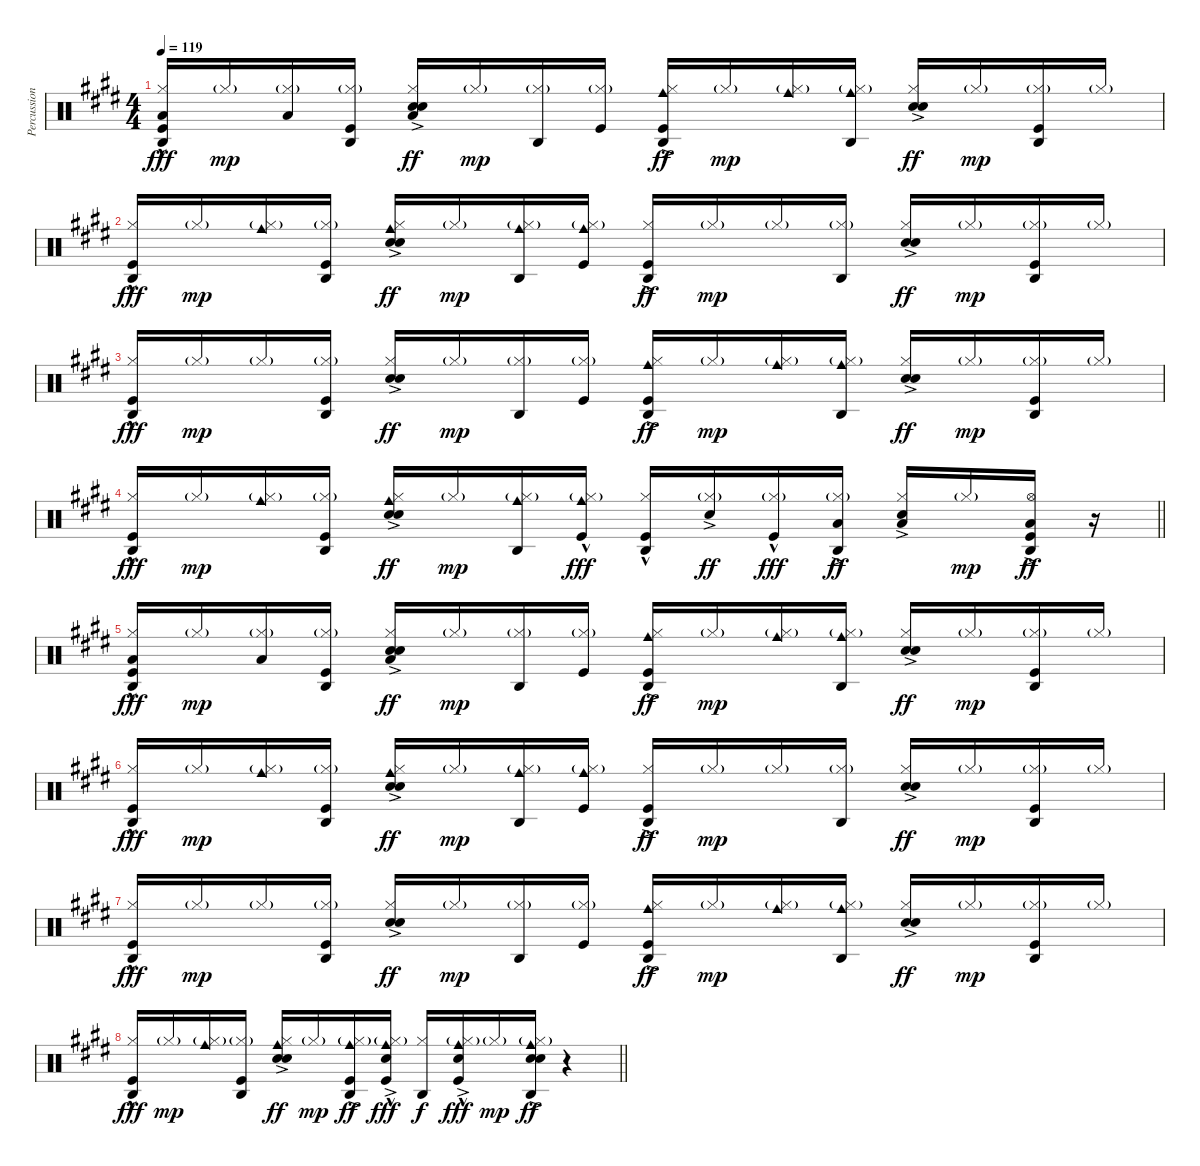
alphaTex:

\track ("Percussion" "Percussion") {instrument percussion}
\staff {score}
\articulation defaults
\ts (4 4)
\tempo 119
\clef neutral
\ks e
("Agogo high (hit)" "Hi-Hat (closed)" "Low Tom (hit)" "Kick (hit)"{hac}).16{dy fff} "Hi-Hat (closed)"{g}.16{dy mp} ("Hi-Hat (closed)"{g} "Low Tom (hit)").16 ("Agogo high (hit)" "Hi-Hat (closed)"{g} "Kick (hit)").16 ("Hi-Hat (closed)" "Hand Clap (hit)"{ac} "Snare (hit) 2"{ac} "Low Tom (hit)").16{dy ff} "Hi-Hat (closed)"{g}.16{dy mp} ("Agogo high (hit)" "Hi-Hat (closed)"{g}).16 ("Hi-Hat (closed)"{g} "Kick (hit)").16 ("Agogo high (hit)" "Cowbell medium (hit)" "Hi-Hat (closed)" "Kick (hit)"{ac}).16{dy ff} "Hi-Hat (closed)"{g}.16{dy mp} ("Cowbell medium (hit)" "Hi-Hat (closed)"{g}).16 ("Agogo high (hit)" "Cowbell medium (hit)" "Hi-Hat (closed)"{g}).16 ("Hi-Hat (closed)" "Hand Clap (hit)"{ac} "Snare (hit) 2"{ac}).16{dy ff} "Hi-Hat (closed)"{g}.16{dy mp} ("Agogo high (hit)" "Hi-Hat (closed)"{g} "Kick (hit)").16 "Hi-Hat (closed)"{g}.16 |
("Agogo high (hit)" "Hi-Hat (closed)" "Kick (hit)"{hac}).16{dy fff} "Hi-Hat (closed)"{g}.16{dy mp} ("Cowbell medium (hit)" "Hi-Hat (closed)"{g}).16 ("Agogo high (hit)" "Hi-Hat (closed)"{g} "Kick (hit)").16 ("Cowbell medium (hit)" "Hi-Hat (closed)" "Hand Clap (hit)"{ac} "Snare (hit) 2"{ac}).16{dy ff} "Hi-Hat (closed)"{g}.16{dy mp} ("Agogo high (hit)" "Cowbell medium (hit)" "Hi-Hat (closed)"{g}).16 ("Cowbell medium (hit)" "Hi-Hat (closed)"{g} "Kick (hit)").16 ("Agogo high (hit)" "Hi-Hat (closed)" "Kick (hit)"{ac}).16{dy ff} "Hi-Hat (closed)"{g}.16{dy mp} "Hi-Hat (closed)"{g}.16 ("Agogo high (hit)" "Hi-Hat (closed)"{g}).16 ("Hi-Hat (closed)" "Hand Clap (hit)"{ac} "Snare (hit) 2"{ac}).16{dy ff} "Hi-Hat (closed)"{g}.16{dy mp} ("Agogo high (hit)" "Hi-Hat (closed)"{g} "Kick (hit)").16 "Hi-Hat (closed)"{g}.16 |
("Agogo high (hit)" "Hi-Hat (closed)" "Kick (hit)"{hac}).16{dy fff} "Hi-Hat (closed)"{g}.16{dy mp} "Hi-Hat (closed)"{g}.16 ("Agogo high (hit)" "Hi-Hat (closed)"{g} "Kick (hit)").16 ("Hi-Hat (closed)" "Hand Clap (hit)"{ac} "Snare (hit) 2"{ac}).16{dy ff} "Hi-Hat (closed)"{g}.16{dy mp} ("Agogo high (hit)" "Hi-Hat (closed)"{g}).16 ("Hi-Hat (closed)"{g} "Kick (hit)").16 ("Agogo high (hit)" "Cowbell medium (hit)" "Hi-Hat (closed)" "Kick (hit)"{ac}).16{dy ff} "Hi-Hat (closed)"{g}.16{dy mp} ("Cowbell medium (hit)" "Hi-Hat (closed)"{g}).16 ("Agogo high (hit)" "Cowbell medium (hit)" "Hi-Hat (closed)"{g}).16 ("Hi-Hat (closed)" "Hand Clap (hit)"{ac} "Snare (hit) 2"{ac}).16{dy ff} "Hi-Hat (closed)"{g}.16{dy mp} ("Agogo high (hit)" "Hi-Hat (closed)"{g} "Kick (hit)").16 "Hi-Hat (closed)"{g}.16 |
\barLineRight lightlight
("Agogo high (hit)" "Hi-Hat (closed)" "Kick (hit)"{hac}).16{dy fff} "Hi-Hat (closed)"{g}.16{dy mp} ("Cowbell medium (hit)" "Hi-Hat (closed)"{g}).16 ("Agogo high (hit)" "Hi-Hat (closed)"{g} "Kick (hit)").16 ("Cowbell medium (hit)" "Hi-Hat (closed)" "Hand Clap (hit)"{ac} "Snare (hit) 2"{ac}).16{dy ff} "Hi-Hat (closed)"{g}.16{dy mp} ("Agogo high (hit)" "Cowbell medium (hit)" "Hi-Hat (closed)"{g}).16 ("Cowbell medium (hit)" "Hi-Hat (closed)"{g} "Kick (hit)"{hac}).16{dy fff} ("Agogo high (hit)" "Hi-Hat (closed)" "Kick (hit)"{hac}).16 ("Hi-Hat (closed)"{g} "Hand Clap (hit)"{ac}).16{dy ff} ("Hi-Hat (closed)"{g} "Kick (hit)"{hac}).16{dy fff} ("Agogo high (hit)" "Hi-Hat (closed)"{g} "Low Tom (hit)"{ac}).16{dy ff} ("Hi-Hat (closed)" "Hand Clap (hit)"{ac} "Low Tom (hit)"{ac}).16 "Hi-Hat (closed)"{g}.16{dy mp} ("Agogo high (hit)" "Hi-Hat (open)" "Low Tom (hit)"{ac} "Kick (hit)").16{dy ff} r.16 |
("Agogo high (hit)" "Hi-Hat (closed)" "Low Tom (hit)" "Kick (hit)"{hac}).16{dy fff} "Hi-Hat (closed)"{g}.16{dy mp} ("Hi-Hat (closed)"{g} "Low Tom (hit)").16 ("Agogo high (hit)" "Hi-Hat (closed)"{g} "Kick (hit)").16 ("Hi-Hat (closed)" "Hand Clap (hit)"{ac} "Snare (hit) 2"{ac} "Low Tom (hit)").16{dy ff} "Hi-Hat (closed)"{g}.16{dy mp} ("Agogo high (hit)" "Hi-Hat (closed)"{g}).16 ("Hi-Hat (closed)"{g} "Kick (hit)").16 ("Agogo high (hit)" "Cowbell medium (hit)" "Hi-Hat (closed)" "Kick (hit)"{ac}).16{dy ff} "Hi-Hat (closed)"{g}.16{dy mp} ("Cowbell medium (hit)" "Hi-Hat (closed)"{g}).16 ("Agogo high (hit)" "Cowbell medium (hit)" "Hi-Hat (closed)"{g}).16 ("Hi-Hat (closed)" "Hand Clap (hit)"{ac} "Snare (hit) 2"{ac}).16{dy ff} "Hi-Hat (closed)"{g}.16{dy mp} ("Agogo high (hit)" "Hi-Hat (closed)"{g} "Kick (hit)").16 "Hi-Hat (closed)"{g}.16 |
("Agogo high (hit)" "Hi-Hat (closed)" "Kick (hit)"{hac}).16{dy fff} "Hi-Hat (closed)"{g}.16{dy mp} ("Cowbell medium (hit)" "Hi-Hat (closed)"{g}).16 ("Agogo high (hit)" "Hi-Hat (closed)"{g} "Kick (hit)").16 ("Cowbell medium (hit)" "Hi-Hat (closed)" "Hand Clap (hit)"{ac} "Snare (hit) 2"{ac}).16{dy ff} "Hi-Hat (closed)"{g}.16{dy mp} ("Agogo high (hit)" "Cowbell medium (hit)" "Hi-Hat (closed)"{g}).16 ("Cowbell medium (hit)" "Hi-Hat (closed)"{g} "Kick (hit)").16 ("Agogo high (hit)" "Hi-Hat (closed)" "Kick (hit)"{ac}).16{dy ff} "Hi-Hat (closed)"{g}.16{dy mp} "Hi-Hat (closed)"{g}.16 ("Agogo high (hit)" "Hi-Hat (closed)"{g}).16 ("Hi-Hat (closed)" "Hand Clap (hit)"{ac} "Snare (hit) 2"{ac}).16{dy ff} "Hi-Hat (closed)"{g}.16{dy mp} ("Agogo high (hit)" "Hi-Hat (closed)"{g} "Kick (hit)").16 "Hi-Hat (closed)"{g}.16 |
("Agogo high (hit)" "Hi-Hat (closed)" "Kick (hit)"{hac}).16{dy fff} "Hi-Hat (closed)"{g}.16{dy mp} "Hi-Hat (closed)"{g}.16 ("Agogo high (hit)" "Hi-Hat (closed)"{g} "Kick (hit)").16 ("Hi-Hat (closed)" "Hand Clap (hit)"{ac} "Snare (hit) 2"{ac}).16{dy ff} "Hi-Hat (closed)"{g}.16{dy mp} ("Agogo high (hit)" "Hi-Hat (closed)"{g}).16 ("Hi-Hat (closed)"{g} "Kick (hit)").16 ("Agogo high (hit)" "Cowbell medium (hit)" "Hi-Hat (closed)" "Kick (hit)"{ac}).16{dy ff} "Hi-Hat (closed)"{g}.16{dy mp} ("Cowbell medium (hit)" "Hi-Hat (closed)"{g}).16 ("Agogo high (hit)" "Cowbell medium (hit)" "Hi-Hat (closed)"{g}).16 ("Hi-Hat (closed)" "Hand Clap (hit)"{ac} "Snare (hit) 2"{ac}).16{dy ff} "Hi-Hat (closed)"{g}.16{dy mp} ("Agogo high (hit)" "Hi-Hat (closed)"{g} "Kick (hit)").16 "Hi-Hat (closed)"{g}.16 |
\barLineRight lightlight
("Agogo high (hit)" "Hi-Hat (closed)" "Kick (hit)"{hac}).16{dy fff} "Hi-Hat (closed)"{g}.16{dy mp} ("Cowbell medium (hit)" "Hi-Hat (closed)"{g}).16 ("Agogo high (hit)" "Hi-Hat (closed)"{g} "Kick (hit)").16 ("Cowbell medium (hit)" "Hi-Hat (closed)" "Hand Clap (hit)"{ac} "Snare (hit) 2"{ac}).16{dy ff} "Hi-Hat (closed)"{g}.16{dy mp} ("Agogo high (hit)" "Cowbell medium (hit)" "Hi-Hat (closed)"{g} "Kick (hit)"{ac}).16{dy ff} ("Cowbell medium (hit)" "Hi-Hat (closed)"{g} "Hand Clap (hit)"{ac} "Kick (hit)"{hac}).16{dy fff} ("Agogo high (hit)" "Hi-Hat (closed)").16{dy f} ("Cowbell medium (hit)" "Hi-Hat (closed)"{g} "Hand Clap (hit)"{ac} "Kick (hit)"{hac}).16{dy fff} "Hi-Hat (closed)"{g}.16{dy mp} ("Agogo high (hit)" "Cowbell medium (hit)" "Hi-Hat (closed)"{g} "Hand Clap (hit)"{ac} "Snare (hit) 2"{ac}).16{dy ff} r.4
